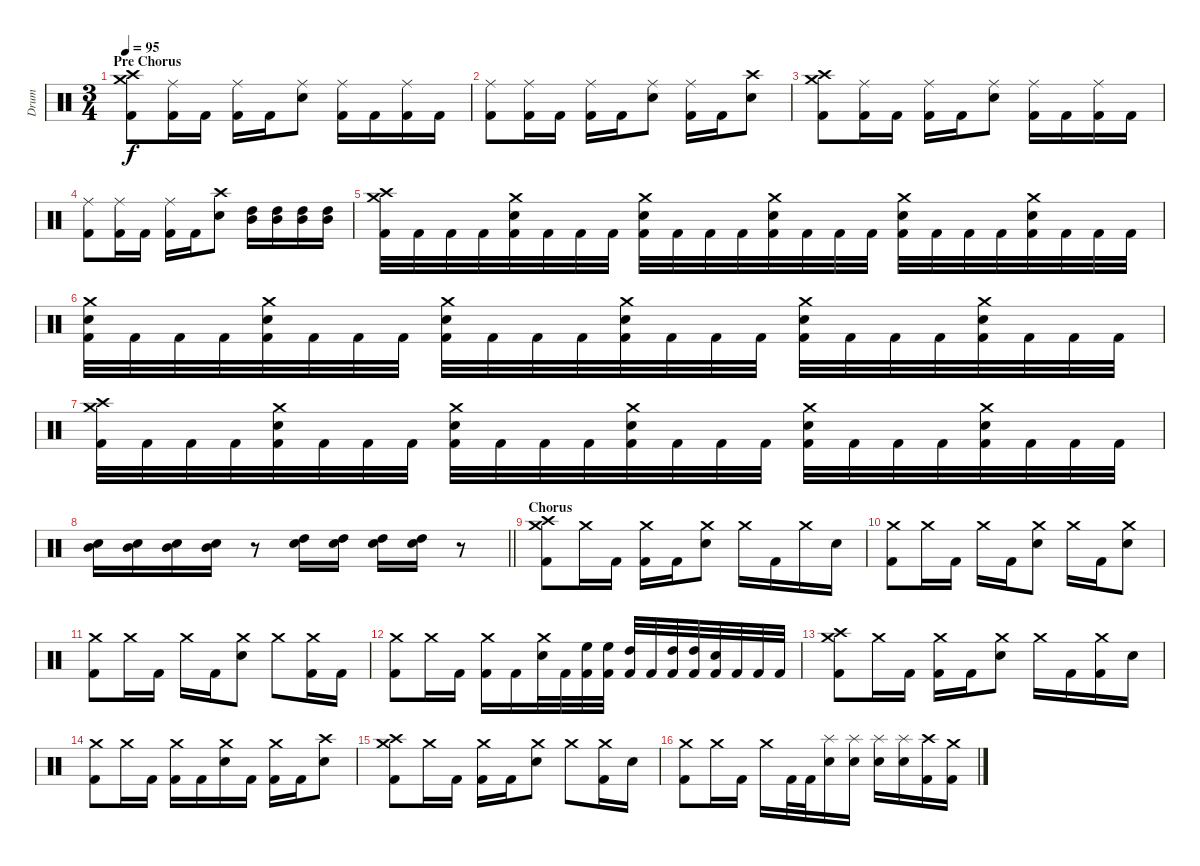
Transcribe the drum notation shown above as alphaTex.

\track ("Drum" "Drum") {instrument percussion}
\staff {score}
\articulation defaults
\ts (3 4)
\section ("" "Pre Chorus")
\tempo 95
\clef neutral
\ks c
("Crash medium (hit)" "Crash high (hit)" "Kick (hit) 2").8{dy f} ("Ride (middle)" "Kick (hit) 2").16 "Kick (hit) 2".16 ("Ride (middle)" "Kick (hit) 2").16 "Kick (hit) 2".16 ("Ride (middle)" "Electric Snare (hit)").8 ("Ride (middle)" "Kick (hit) 2").16 "Kick (hit) 2".16 ("Ride (middle)" "Kick (hit) 2").16 "Kick (hit) 2".16 |
("Ride (middle)" "Kick (hit) 2").8 ("Ride (middle)" "Kick (hit) 2").16 "Kick (hit) 2".16 ("Ride (middle)" "Kick (hit) 2").16 "Kick (hit) 2".16 ("Ride (middle)" "Electric Snare (hit)").8 ("Ride (middle)" "Kick (hit) 2").16 "Kick (hit) 2".16 ("Crash high (hit)" "Electric Snare (hit)").8 |
("Crash medium (hit)" "Crash high (hit)" "Kick (hit) 2").8 ("Ride (middle)" "Kick (hit) 2").16 "Kick (hit) 2".16 ("Ride (middle)" "Kick (hit) 2").16 "Kick (hit) 2".16 ("Ride (middle)" "Electric Snare (hit)").8 ("Ride (middle)" "Kick (hit) 2").16 "Kick (hit) 2".16 ("Ride (middle)" "Kick (hit) 2").16 "Kick (hit) 2".16 |
("Ride (middle)" "Kick (hit) 2").8 ("Ride (middle)" "Kick (hit) 2").16 "Kick (hit) 2".16 ("Ride (middle)" "Kick (hit) 2").16 "Kick (hit) 2".16 ("Crash high (hit)" "Electric Snare (hit)").8 ("High Tom (hit)" "Mid Tom (hit)").16 ("High Tom (hit)" "Mid Tom (hit)").16 ("High Tom (hit)" "Mid Tom (hit)").16 ("High Tom (hit)" "Mid Tom (hit)").16 |
("Crash medium (hit)" "Crash high (hit)" "Kick (hit) 2").32 "Kick (hit) 2".32 "Kick (hit) 2".32 "Kick (hit) 2".32 ("Crash medium (hit)" "Electric Snare (hit)" "Kick (hit) 2").32 "Kick (hit) 2".32 "Kick (hit) 2".32 "Kick (hit) 2".32 ("Crash medium (hit)" "Electric Snare (hit)" "Kick (hit) 2").32 "Kick (hit) 2".32 "Kick (hit) 2".32 "Kick (hit) 2".32 ("Crash medium (hit)" "Electric Snare (hit)" "Kick (hit) 2").32 "Kick (hit) 2".32 "Kick (hit) 2".32 "Kick (hit) 2".32 ("Crash medium (hit)" "Electric Snare (hit)" "Kick (hit) 2").32 "Kick (hit) 2".32 "Kick (hit) 2".32 "Kick (hit) 2".32 ("Crash medium (hit)" "Electric Snare (hit)" "Kick (hit) 2").32 "Kick (hit) 2".32 "Kick (hit) 2".32 "Kick (hit) 2".32 |
("Crash medium (hit)" "Electric Snare (hit)" "Kick (hit) 2").32 "Kick (hit) 2".32 "Kick (hit) 2".32 "Kick (hit) 2".32 ("Crash medium (hit)" "Electric Snare (hit)" "Kick (hit) 2").32 "Kick (hit) 2".32 "Kick (hit) 2".32 "Kick (hit) 2".32 ("Crash medium (hit)" "Electric Snare (hit)" "Kick (hit) 2").32 "Kick (hit) 2".32 "Kick (hit) 2".32 "Kick (hit) 2".32 ("Crash medium (hit)" "Electric Snare (hit)" "Kick (hit) 2").32 "Kick (hit) 2".32 "Kick (hit) 2".32 "Kick (hit) 2".32 ("Crash medium (hit)" "Electric Snare (hit)" "Kick (hit) 2").32 "Kick (hit) 2".32 "Kick (hit) 2".32 "Kick (hit) 2".32 ("Crash medium (hit)" "Electric Snare (hit)" "Kick (hit) 2").32 "Kick (hit) 2".32 "Kick (hit) 2".32 "Kick (hit) 2".32 |
("Crash medium (hit)" "Crash high (hit)" "Kick (hit) 2").32 "Kick (hit) 2".32 "Kick (hit) 2".32 "Kick (hit) 2".32 ("Crash medium (hit)" "Electric Snare (hit)" "Kick (hit) 2").32 "Kick (hit) 2".32 "Kick (hit) 2".32 "Kick (hit) 2".32 ("Crash medium (hit)" "Electric Snare (hit)" "Kick (hit) 2").32 "Kick (hit) 2".32 "Kick (hit) 2".32 "Kick (hit) 2".32 ("Crash medium (hit)" "Electric Snare (hit)" "Kick (hit) 2").32 "Kick (hit) 2".32 "Kick (hit) 2".32 "Kick (hit) 2".32 ("Crash medium (hit)" "Electric Snare (hit)" "Kick (hit) 2").32 "Kick (hit) 2".32 "Kick (hit) 2".32 "Kick (hit) 2".32 ("Crash medium (hit)" "Electric Snare (hit)" "Kick (hit) 2").32 "Kick (hit) 2".32 "Kick (hit) 2".32 "Kick (hit) 2".32 |
\barLineRight lightlight
("Electric Snare (hit)" "Mid Tom (hit)").16 ("Electric Snare (hit)" "Mid Tom (hit)").16 ("Electric Snare (hit)" "Mid Tom (hit)").16 ("Electric Snare (hit)" "Mid Tom (hit)").16 r.8 ("Electric Snare (hit)" "High Tom (hit)").16 ("Electric Snare (hit)" "High Tom (hit)").16 ("Electric Snare (hit)" "High Tom (hit)").16 ("Electric Snare (hit)" "High Tom (hit)").16 r.8 |
\section ("" "Chorus")
("Crash medium (hit)" "Crash high (hit)" "Kick (hit) 2").8 "Crash medium (hit)".16 "Kick (hit) 2".16 ("Crash medium (hit)" "Kick (hit) 2").16 "Kick (hit) 2".16 ("Crash medium (hit)" "Electric Snare (hit)").8 "Crash medium (hit)".16 "Kick (hit) 2".16 "Crash medium (hit)".16 "Electric Snare (hit)".16 |
("Crash medium (hit)" "Kick (hit) 2").8 "Crash medium (hit)".16 "Kick (hit) 2".16 "Crash medium (hit)".16 "Kick (hit) 2".16 ("Crash medium (hit)" "Electric Snare (hit)").8 "Crash medium (hit)".16 "Kick (hit) 2".16 ("Crash medium (hit)" "Electric Snare (hit)").8 |
("Crash medium (hit)" "Kick (hit) 2").8 "Crash medium (hit)".16 "Kick (hit) 2".16 "Crash medium (hit)".16 "Kick (hit) 2".16 ("Crash medium (hit)" "Electric Snare (hit)").8 "Crash medium (hit)".8 ("Crash medium (hit)" "Kick (hit) 2").16 "Kick (hit) 2".16 |
("Crash medium (hit)" "Kick (hit) 2").8 "Crash medium (hit)".16 "Kick (hit) 2".16 ("Crash medium (hit)" "Kick (hit) 2").16 "Kick (hit) 2".16 ("Crash medium (hit)" "Electric Snare (hit)").32 "Kick (hit) 2".32 ("High Floor Tom (hit)" "Kick (hit) 2").32 ("High Floor Tom (hit)" "Kick (hit) 2").32 ("High Tom (hit)" "Kick (hit) 2").32 "Kick (hit) 2".32 ("High Tom (hit)" "Kick (hit) 2").32 ("High Tom (hit)" "Kick (hit) 2").32 ("Electric Snare (hit)" "Kick (hit) 2").32 "Kick (hit) 2".32 "Kick (hit) 2".32 "Kick (hit) 2".32 |
("Crash medium (hit)" "Crash high (hit)" "Kick (hit) 2").8 "Crash medium (hit)".16 "Kick (hit) 2".16 ("Crash medium (hit)" "Kick (hit) 2").16 "Kick (hit) 2".16 ("Crash medium (hit)" "Electric Snare (hit)").8 "Crash medium (hit)".16 "Kick (hit) 2".16 ("Crash medium (hit)" "Kick (hit) 2").16 "Electric Snare (hit)".16 |
("Crash medium (hit)" "Kick (hit) 2").8 "Crash medium (hit)".16 "Kick (hit) 2".16 ("Crash medium (hit)" "Kick (hit) 2").16 "Kick (hit) 2".16 ("Crash medium (hit)" "Electric Snare (hit)").16 "Kick (hit) 2".16 ("Crash medium (hit)" "Kick (hit) 2").16 "Kick (hit) 2".16 ("Crash high (hit)" "Electric Snare (hit)").8 |
("Crash high (hit)" "Crash medium (hit)" "Kick (hit) 2").8 "Crash medium (hit)".16 "Kick (hit) 2".16 ("Crash medium (hit)" "Kick (hit) 2").16 "Kick (hit) 2".16 ("Crash medium (hit)" "Electric Snare (hit)").8 "Crash medium (hit)".8 ("Crash medium (hit)" "Kick (hit) 2").16 "Electric Snare (hit)".16 |
("Crash medium (hit)" "Kick (hit) 2").8 "Crash medium (hit)".16 "Kick (hit) 2".16 "Crash medium (hit)".16 "Kick (hit) 2".32 "Kick (hit) 2".32 ("Splash (hit)" "Electric Snare (hit)").16 ("Splash (hit)" "Electric Snare (hit)").16 ("Splash (hit)" "Electric Snare (hit)").16 ("Splash (hit)" "Electric Snare (hit)").16 ("Crash high (hit)" "Kick (hit) 2").16 ("Crash medium (hit)" "Kick (hit) 2").16
